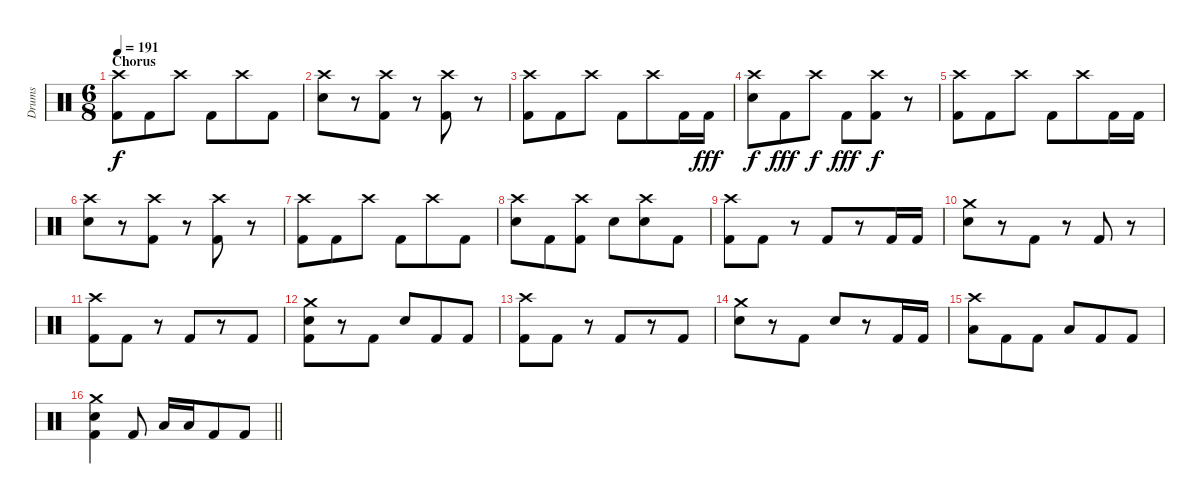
\track ("Drums" "Drums") {instrument percussion}
\staff {score}
\articulation defaults
\ts (6 8)
\section ("" "Chorus")
\tempo 191
\clef neutral
\ks c
("Crash high (hit)" "Kick (hit) 2").8{dy f} "Kick (hit) 2".8 "Crash high (hit)".8 "Kick (hit) 2".8 "Crash high (hit)".8 "Kick (hit) 2".8 |
("Crash high (hit)" "Snare (hit) 2").8 r.8 ("Crash high (hit)" "Kick (hit) 2").8 r.8 ("Crash high (hit)" "Kick (hit) 2").8 r.8 |
("Crash high (hit)" "Kick (hit) 2").8 "Kick (hit) 2".8 "Crash high (hit)".8 "Kick (hit) 2".8 "Crash high (hit)".8 "Kick (hit) 2".16 "Kick (hit) 2".16{dy fff} |
("Crash high (hit)" "Snare (hit) 2").8{dy f} "Kick (hit) 2".8{dy fff} "Crash high (hit)".8{dy f} "Kick (hit) 2".8{dy fff} ("Crash high (hit)" "Kick (hit) 2").8{dy f} r.8 |
("Crash high (hit)" "Kick (hit) 2").8 "Kick (hit) 2".8 "Crash high (hit)".8 "Kick (hit) 2".8 "Crash high (hit)".8 "Kick (hit) 2".16 "Kick (hit) 2".16 |
("Crash high (hit)" "Snare (hit) 2").8 r.8 ("Crash high (hit)" "Kick (hit) 2").8 r.8 ("Crash high (hit)" "Kick (hit) 2").8 r.8 |
("Crash high (hit)" "Kick (hit) 2").8 "Kick (hit) 2".8 "Crash high (hit)".8 "Kick (hit) 2".8 "Crash high (hit)".8 "Kick (hit) 2".8 |
("Crash high (hit)" "Snare (hit) 2").8 "Kick (hit) 2".8 ("Crash high (hit)" "Kick (hit) 2").8 "Snare (hit) 2".8 ("Crash high (hit)" "Snare (hit) 2").8 "Kick (hit) 2".8 |
("Crash high (hit)" "Kick (hit) 2").8 "Kick (hit) 2".8 r.8 "Kick (hit) 2".8 r.8 "Kick (hit) 2".16 "Kick (hit) 2".16 |
("Crash medium (hit)" "Snare (hit) 2").8 r.8 "Kick (hit) 2".8 r.8 "Kick (hit) 2".8 r.8 |
("Crash high (hit)" "Kick (hit) 2").8 "Kick (hit) 2".8 r.8 "Kick (hit) 2".8 r.8 "Kick (hit) 2".8 |
("Crash medium (hit)" "Snare (hit) 2" "Kick (hit) 2").8 r.8 "Kick (hit) 2".8 "Snare (hit) 2".8 "Kick (hit) 2".8 "Kick (hit) 2".8 |
("Crash high (hit)" "Kick (hit) 2").8 "Kick (hit) 2".8 r.8 "Kick (hit) 2".8 r.8 "Kick (hit) 2".8 |
("Crash medium (hit)" "Snare (hit) 2").8 r.8 "Kick (hit) 2".8 "Snare (hit) 2".8 r.8 "Kick (hit) 2".16 "Kick (hit) 2".16 |
("Crash high (hit)" "Low Floor Tom (hit)").8 "Kick (hit) 2".8 "Kick (hit) 2".8 "Low Floor Tom (hit)".8 "Kick (hit) 2".8 "Kick (hit) 2".8 |
\barLineRight lightlight
("Crash medium (hit)" "Snare (hit) 2" "Kick (hit) 2").4 "Kick (hit) 2".8 "Low Floor Tom (hit)".16 "Low Floor Tom (hit)".16 "Kick (hit) 2".8 "Kick (hit) 2".8
